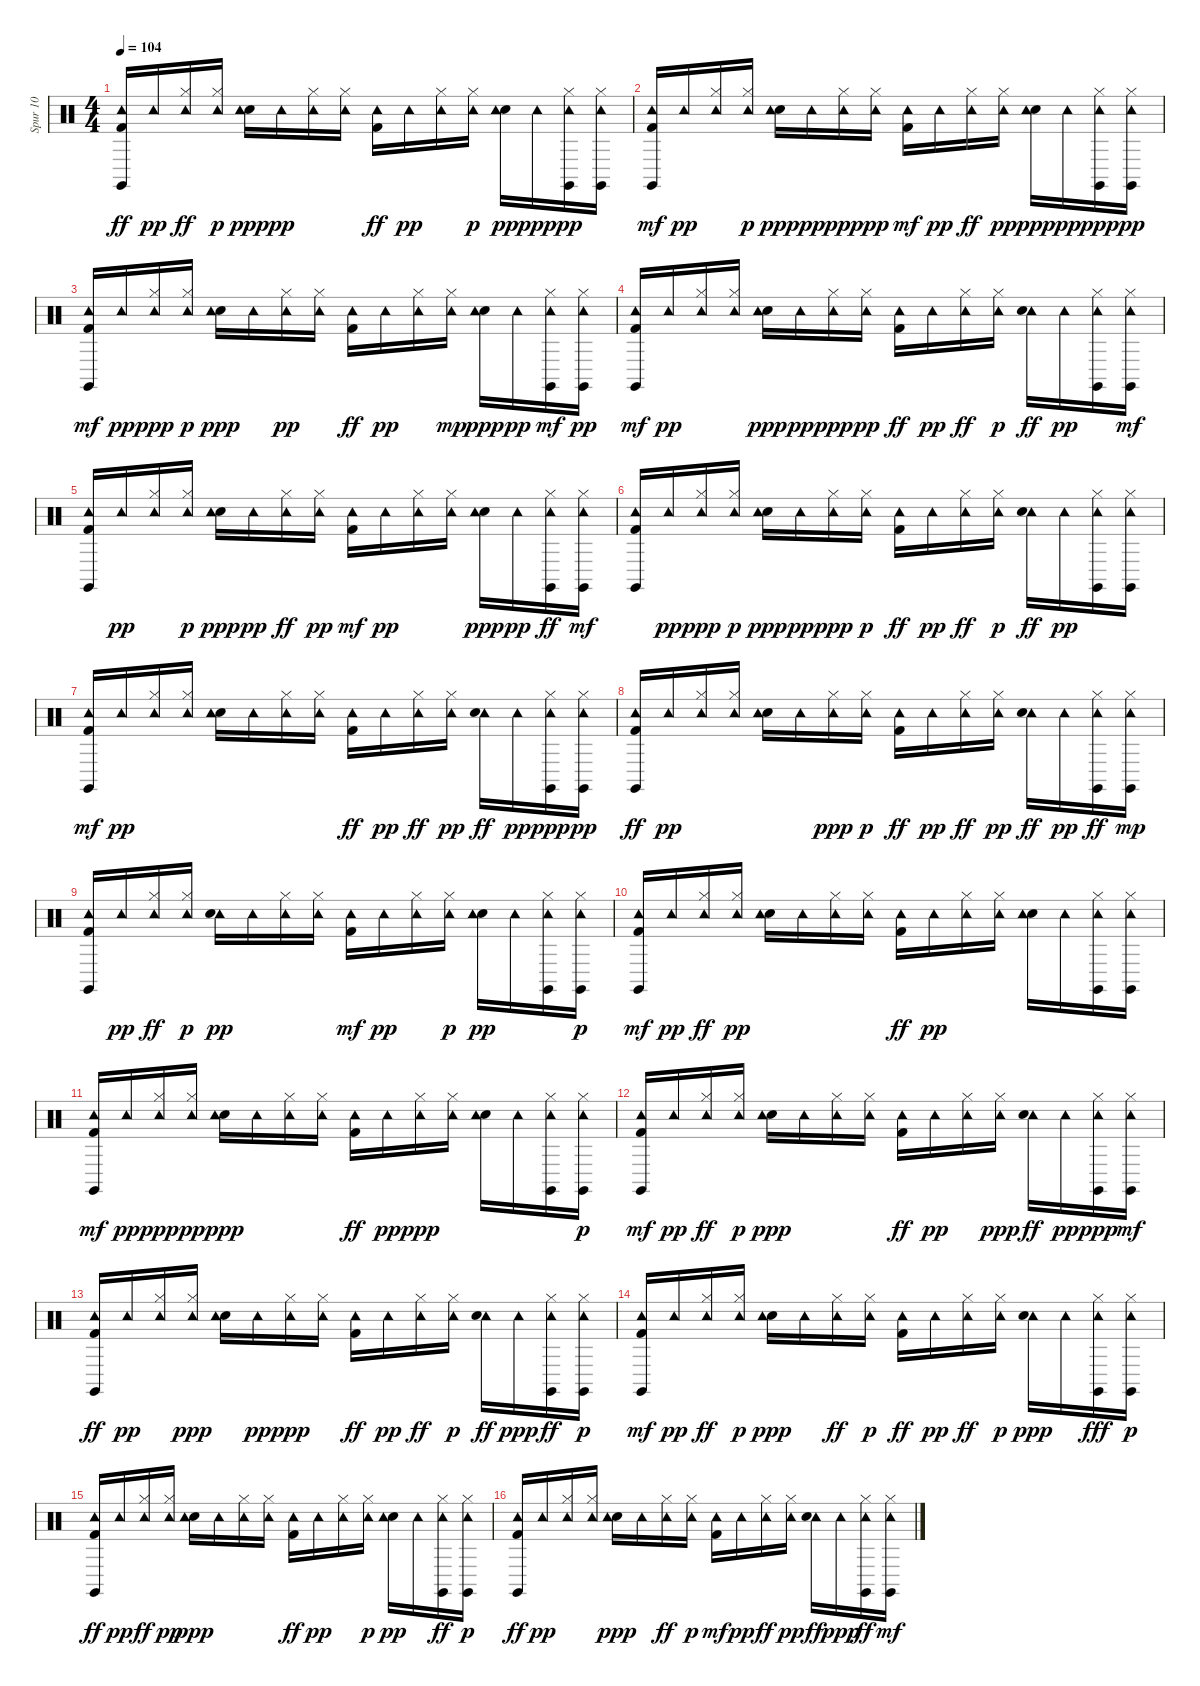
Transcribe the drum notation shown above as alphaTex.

\track ("Spur 10" "Spur 10") {instrument percussion}
\staff {score}
\articulation defaults
\ts (4 4)
\tempo 104
\clef neutral
\ks c
("Tambourine (hit)" "Kick (hit) 2" "Claves (hit)").16{dy ff} "Tambourine (hit)".16{dy pp} ("Tambourine (hit)" "Hi-Hat (closed)").16{dy ff} ("Tambourine (hit)" "Hi-Hat (closed)").16{dy p} ("Electric Snare (hit)" "Tambourine (hit)").16{dy ppp} "Tambourine (hit)".16{dy pp} ("Hi-Hat (closed)" "Tambourine (hit)").16 ("Hi-Hat (closed)" "Tambourine (hit)").16 ("Tambourine (hit)" "Kick (hit) 2").16{dy ff} "Tambourine (hit)".16{dy pp} ("Hi-Hat (closed)" "Tambourine (hit)").16 ("Tambourine (hit)" "Hi-Hat (closed)").16{dy p} ("Electric Snare (hit)" "Tambourine (hit)").16{dy pp} "Tambourine (hit)".16{dy ppp} ("Hi-Hat (closed)" "Claves (hit)" "Tambourine (hit)").16{dy pp} ("Hi-Hat (closed)" "Claves (hit)" "Tambourine (hit)").16 |
("Kick (hit) 2" "Claves (hit)" "Tambourine (hit)").16{dy mf} "Tambourine (hit)".16{dy pp} ("Hi-Hat (closed)" "Tambourine (hit)").16 ("Tambourine (hit)" "Hi-Hat (closed)").16{dy p} ("Electric Snare (hit)" "Tambourine (hit)").16{dy ppp} "Tambourine (hit)".16{dy pp} ("Hi-Hat (closed)" "Tambourine (hit)").16{dy ppp} ("Hi-Hat (closed)" "Tambourine (hit)").16{dy pp} ("Kick (hit) 2" "Tambourine (hit)").16{dy mf} "Tambourine (hit)".16{dy pp} ("Tambourine (hit)" "Hi-Hat (closed)").16{dy ff} ("Hi-Hat (closed)" "Tambourine (hit)").16{dy pp} ("Electric Snare (hit)" "Tambourine (hit)").16{dy ppp} "Tambourine (hit)".16{dy pp} ("Hi-Hat (closed)" "Claves (hit)" "Tambourine (hit)").16{dy ppp} ("Hi-Hat (closed)" "Claves (hit)" "Tambourine (hit)").16{dy pp} |
("Kick (hit) 2" "Claves (hit)" "Tambourine (hit)").16{dy mf} "Tambourine (hit)".16{dy pp} ("Hi-Hat (closed)" "Tambourine (hit)").16{dy ppp} ("Tambourine (hit)" "Hi-Hat (closed)").16{dy p} ("Electric Snare (hit)" "Tambourine (hit)").16{dy ppp} "Tambourine (hit)".16 ("Hi-Hat (closed)" "Tambourine (hit)").16{dy pp} ("Hi-Hat (closed)" "Tambourine (hit)").16 ("Kick (hit) 2" "Tambourine (hit)").16{dy ff} "Tambourine (hit)".16{dy pp} ("Hi-Hat (closed)" "Tambourine (hit)").16 ("Tambourine (hit)" "Hi-Hat (closed)").16{dy mp} ("Electric Snare (hit)" "Tambourine (hit)").16{dy ppp} "Tambourine (hit)".16{dy pp} ("Hi-Hat (closed)" "Tambourine (hit)" "Claves (hit)").16{dy mf} ("Hi-Hat (closed)" "Claves (hit)" "Tambourine (hit)").16{dy pp} |
("Kick (hit) 2" "Tambourine (hit)" "Claves (hit)").16{dy mf} "Tambourine (hit)".16{dy pp} ("Hi-Hat (closed)" "Tambourine (hit)").16 ("Hi-Hat (closed)" "Tambourine (hit)").16 ("Electric Snare (hit)" "Tambourine (hit)").16{dy ppp} "Tambourine (hit)".16{dy pp} ("Hi-Hat (closed)" "Tambourine (hit)").16{dy ppp} ("Hi-Hat (closed)" "Tambourine (hit)").16{dy pp} ("Kick (hit) 2" "Tambourine (hit)").16{dy ff} "Tambourine (hit)".16{dy pp} ("Tambourine (hit)" "Hi-Hat (closed)").16{dy ff} ("Tambourine (hit)" "Hi-Hat (closed)").16{dy p} ("Tambourine (hit)" "Electric Snare (hit)").16{dy ff} "Tambourine (hit)".16{dy pp} ("Tambourine (hit)" "Hi-Hat (closed)" "Claves (hit)").16 ("Tambourine (hit)" "Hi-Hat (closed)" "Claves (hit)").16{dy mf} |
("Tambourine (hit)" "Kick (hit) 2" "Claves (hit)").16 "Tambourine (hit)".16{dy pp} ("Hi-Hat (closed)" "Tambourine (hit)").16 ("Tambourine (hit)" "Hi-Hat (closed)").16{dy p} ("Electric Snare (hit)" "Tambourine (hit)").16{dy ppp} "Tambourine (hit)".16{dy pp} ("Tambourine (hit)" "Hi-Hat (closed)").16{dy ff} ("Hi-Hat (closed)" "Tambourine (hit)").16{dy pp} ("Kick (hit) 2" "Tambourine (hit)").16{dy mf} "Tambourine (hit)".16{dy pp} ("Hi-Hat (closed)" "Tambourine (hit)").16 ("Hi-Hat (closed)" "Tambourine (hit)").16 ("Electric Snare (hit)" "Tambourine (hit)").16{dy ppp} "Tambourine (hit)".16{dy pp} ("Hi-Hat (closed)" "Tambourine (hit)" "Claves (hit)").16{dy ff} ("Hi-Hat (closed)" "Tambourine (hit)" "Claves (hit)").16{dy mf} |
("Kick (hit) 2" "Tambourine (hit)" "Claves (hit)").16 "Tambourine (hit)".16{dy pp} ("Hi-Hat (closed)" "Tambourine (hit)").16{dy ppp} ("Tambourine (hit)" "Hi-Hat (closed)").16{dy p} ("Electric Snare (hit)" "Tambourine (hit)").16{dy ppp} "Tambourine (hit)".16{dy pp} ("Hi-Hat (closed)" "Tambourine (hit)").16{dy ppp} ("Tambourine (hit)" "Hi-Hat (closed)").16{dy p} ("Kick (hit) 2" "Tambourine (hit)").16{dy ff} "Tambourine (hit)".16{dy pp} ("Tambourine (hit)" "Hi-Hat (closed)").16{dy ff} ("Tambourine (hit)" "Hi-Hat (closed)").16{dy p} ("Tambourine (hit)" "Electric Snare (hit)").16{dy ff} "Tambourine (hit)".16{dy pp} ("Hi-Hat (closed)" "Claves (hit)" "Tambourine (hit)").16 ("Hi-Hat (closed)" "Claves (hit)" "Tambourine (hit)").16 |
("Kick (hit) 2" "Tambourine (hit)" "Claves (hit)").16{dy mf} "Tambourine (hit)".16{dy pp} ("Hi-Hat (closed)" "Tambourine (hit)").16 ("Hi-Hat (closed)" "Tambourine (hit)").16 ("Electric Snare (hit)" "Tambourine (hit)").16 "Tambourine (hit)".16 ("Hi-Hat (closed)" "Tambourine (hit)").16 ("Hi-Hat (closed)" "Tambourine (hit)").16 ("Kick (hit) 2" "Tambourine (hit)").16{dy ff} "Tambourine (hit)".16{dy pp} ("Tambourine (hit)" "Hi-Hat (closed)").16{dy ff} ("Hi-Hat (closed)" "Tambourine (hit)").16{dy pp} ("Tambourine (hit)" "Electric Snare (hit)").16{dy ff} "Tambourine (hit)".16{dy pp} ("Hi-Hat (closed)" "Claves (hit)" "Tambourine (hit)").16{dy ppp} ("Hi-Hat (closed)" "Claves (hit)" "Tambourine (hit)").16{dy pp} |
("Tambourine (hit)" "Claves (hit)" "Kick (hit) 2").16{dy ff} "Tambourine (hit)".16{dy pp} ("Hi-Hat (closed)" "Tambourine (hit)").16 ("Hi-Hat (closed)" "Tambourine (hit)").16 ("Electric Snare (hit)" "Tambourine (hit)").16 "Tambourine (hit)".16 ("Hi-Hat (closed)" "Tambourine (hit)").16{dy ppp} ("Tambourine (hit)" "Hi-Hat (closed)").16{dy p} ("Tambourine (hit)" "Kick (hit) 2").16{dy ff} "Tambourine (hit)".16{dy pp} ("Tambourine (hit)" "Hi-Hat (closed)").16{dy ff} ("Tambourine (hit)" "Hi-Hat (closed)").16{dy pp} ("Tambourine (hit)" "Electric Snare (hit)").16{dy ff} "Tambourine (hit)".16{dy pp} ("Tambourine (hit)" "Hi-Hat (closed)" "Claves (hit)").16{dy ff} ("Tambourine (hit)" "Hi-Hat (closed)" "Claves (hit)").16{dy mp} |
("Tambourine (hit)" "Kick (hit) 2" "Claves (hit)").16 "Tambourine (hit)".16{dy pp} ("Tambourine (hit)" "Hi-Hat (closed)").16{dy ff} ("Tambourine (hit)" "Hi-Hat (closed)").16{dy p} ("Tambourine (hit)" "Electric Snare (hit)").16{dy pp} "Tambourine (hit)".16 ("Hi-Hat (closed)" "Tambourine (hit)").16 ("Hi-Hat (closed)" "Tambourine (hit)").16 ("Kick (hit) 2" "Tambourine (hit)").16{dy mf} "Tambourine (hit)".16{dy pp} ("Hi-Hat (closed)" "Tambourine (hit)").16 ("Tambourine (hit)" "Hi-Hat (closed)").16{dy p} ("Electric Snare (hit)" "Tambourine (hit)").16{dy pp} "Tambourine (hit)".16 ("Hi-Hat (closed)" "Claves (hit)" "Tambourine (hit)").16 ("Tambourine (hit)" "Claves (hit)" "Hi-Hat (closed)").16{dy p} |
("Tambourine (hit)" "Kick (hit) 2" "Claves (hit)").16{dy mf} "Tambourine (hit)".16{dy pp} ("Tambourine (hit)" "Hi-Hat (closed)").16{dy ff} ("Hi-Hat (closed)" "Tambourine (hit)").16{dy pp} ("Electric Snare (hit)" "Tambourine (hit)").16 "Tambourine (hit)".16 ("Hi-Hat (closed)" "Tambourine (hit)").16 ("Hi-Hat (closed)" "Tambourine (hit)").16 ("Kick (hit) 2" "Tambourine (hit)").16{dy ff} "Tambourine (hit)".16{dy pp} ("Hi-Hat (closed)" "Tambourine (hit)").16 ("Hi-Hat (closed)" "Tambourine (hit)").16 ("Electric Snare (hit)" "Tambourine (hit)").16 "Tambourine (hit)".16 ("Hi-Hat (closed)" "Claves (hit)" "Tambourine (hit)").16 ("Hi-Hat (closed)" "Claves (hit)" "Tambourine (hit)").16 |
("Kick (hit) 2" "Claves (hit)" "Tambourine (hit)").16{dy mf} "Tambourine (hit)".16{dy pp} ("Hi-Hat (closed)" "Tambourine (hit)").16{dy ppp} ("Hi-Hat (closed)" "Tambourine (hit)").16{dy pp} ("Electric Snare (hit)" "Tambourine (hit)").16{dy ppp} "Tambourine (hit)".16 ("Hi-Hat (closed)" "Tambourine (hit)").16 ("Hi-Hat (closed)" "Tambourine (hit)").16 ("Kick (hit) 2" "Tambourine (hit)").16{dy ff} "Tambourine (hit)".16{dy pp} ("Hi-Hat (closed)" "Tambourine (hit)").16{dy ppp} ("Hi-Hat (closed)" "Tambourine (hit)").16 ("Electric Snare (hit)" "Tambourine (hit)").16 "Tambourine (hit)".16 ("Hi-Hat (closed)" "Claves (hit)" "Tambourine (hit)").16 ("Claves (hit)" "Tambourine (hit)" "Hi-Hat (closed)").16{dy p} |
("Tambourine (hit)" "Kick (hit) 2" "Claves (hit)").16{dy mf} "Tambourine (hit)".16{dy pp} ("Tambourine (hit)" "Hi-Hat (closed)").16{dy ff} ("Tambourine (hit)" "Hi-Hat (closed)").16{dy p} ("Electric Snare (hit)" "Tambourine (hit)").16{dy ppp} "Tambourine (hit)".16 ("Hi-Hat (closed)" "Tambourine (hit)").16 ("Hi-Hat (closed)" "Tambourine (hit)").16 ("Tambourine (hit)" "Kick (hit) 2").16{dy ff} "Tambourine (hit)".16{dy pp} ("Hi-Hat (closed)" "Tambourine (hit)").16 ("Hi-Hat (closed)" "Tambourine (hit)").16{dy ppp} ("Tambourine (hit)" "Electric Snare (hit)").16{dy ff} "Tambourine (hit)".16{dy pp} ("Hi-Hat (closed)" "Claves (hit)" "Tambourine (hit)").16{dy ppp} ("Hi-Hat (closed)" "Tambourine (hit)" "Claves (hit)").16{dy mf} |
("Claves (hit)" "Tambourine (hit)" "Kick (hit) 2").16{dy ff} "Tambourine (hit)".16{dy pp} ("Hi-Hat (closed)" "Tambourine (hit)").16 ("Hi-Hat (closed)" "Tambourine (hit)").16{dy ppp} ("Electric Snare (hit)" "Tambourine (hit)").16 "Tambourine (hit)".16{dy pp} ("Hi-Hat (closed)" "Tambourine (hit)").16{dy ppp} ("Hi-Hat (closed)" "Tambourine (hit)").16 ("Kick (hit) 2" "Tambourine (hit)").16{dy ff} "Tambourine (hit)".16{dy pp} ("Tambourine (hit)" "Hi-Hat (closed)").16{dy ff} ("Tambourine (hit)" "Hi-Hat (closed)").16{dy p} ("Tambourine (hit)" "Electric Snare (hit)").16{dy ff} "Tambourine (hit)".16{dy ppp} ("Claves (hit)" "Tambourine (hit)" "Hi-Hat (closed)").16{dy ff} ("Tambourine (hit)" "Claves (hit)" "Hi-Hat (closed)").16{dy p} |
("Kick (hit) 2" "Claves (hit)" "Tambourine (hit)").16{dy mf} "Tambourine (hit)".16{dy pp} ("Tambourine (hit)" "Hi-Hat (closed)").16{dy ff} ("Tambourine (hit)" "Hi-Hat (closed)").16{dy p} ("Electric Snare (hit)" "Tambourine (hit)").16{dy ppp} "Tambourine (hit)".16 ("Tambourine (hit)" "Hi-Hat (closed)").16{dy ff} ("Tambourine (hit)" "Hi-Hat (closed)").16{dy p} ("Kick (hit) 2" "Tambourine (hit)").16{dy ff} "Tambourine (hit)".16{dy pp} ("Tambourine (hit)" "Hi-Hat (closed)").16{dy ff} ("Tambourine (hit)" "Hi-Hat (closed)").16{dy p} ("Tambourine (hit)" "Electric Snare (hit)").16{dy ppp} "Tambourine (hit)".16 ("Tambourine (hit)" "Hi-Hat (closed)" "Claves (hit)").16{dy fff} ("Tambourine (hit)" "Claves (hit)" "Hi-Hat (closed)").16{dy p} |
("Tambourine (hit)" "Claves (hit)" "Kick (hit) 2").16{dy ff} "Tambourine (hit)".16{dy pp} ("Tambourine (hit)" "Hi-Hat (closed)").16{dy ff} ("Tambourine (hit)" "Hi-Hat (closed)").16{dy pp} ("Electric Snare (hit)" "Tambourine (hit)").16{dy ppp} "Tambourine (hit)".16 ("Hi-Hat (closed)" "Tambourine (hit)").16 ("Hi-Hat (closed)" "Tambourine (hit)").16 ("Kick (hit) 2" "Tambourine (hit)").16{dy ff} "Tambourine (hit)".16{dy pp} ("Hi-Hat (closed)" "Tambourine (hit)").16 ("Tambourine (hit)" "Hi-Hat (closed)").16{dy p} ("Electric Snare (hit)" "Tambourine (hit)").16{dy pp} "Tambourine (hit)".16 ("Tambourine (hit)" "Hi-Hat (closed)" "Claves (hit)").16{dy ff} ("Tambourine (hit)" "Claves (hit)" "Hi-Hat (closed)").16{dy p} |
("Tambourine (hit)" "Kick (hit) 2" "Claves (hit)").16{dy ff} "Tambourine (hit)".16{dy pp} ("Hi-Hat (closed)" "Tambourine (hit)").16 ("Tambourine (hit)" "Hi-Hat (closed)").16 ("Electric Snare (hit)" "Tambourine (hit)").16{dy ppp} "Tambourine (hit)".16 ("Tambourine (hit)" "Hi-Hat (closed)").16{dy ff} ("Tambourine (hit)" "Hi-Hat (closed)").16{dy p} ("Kick (hit) 2" "Tambourine (hit)").16{dy mf} "Tambourine (hit)".16{dy pp} ("Tambourine (hit)" "Hi-Hat (closed)").16{dy ff} ("Tambourine (hit)" "Hi-Hat (closed)").16{dy pp} ("Tambourine (hit)" "Electric Snare (hit)").16{dy ff} "Tambourine (hit)".16{dy ppp} ("Tambourine (hit)" "Hi-Hat (closed)" "Claves (hit)").16{dy ff} ("Tambourine (hit)" "Hi-Hat (closed)" "Claves (hit)").16{dy mf}
